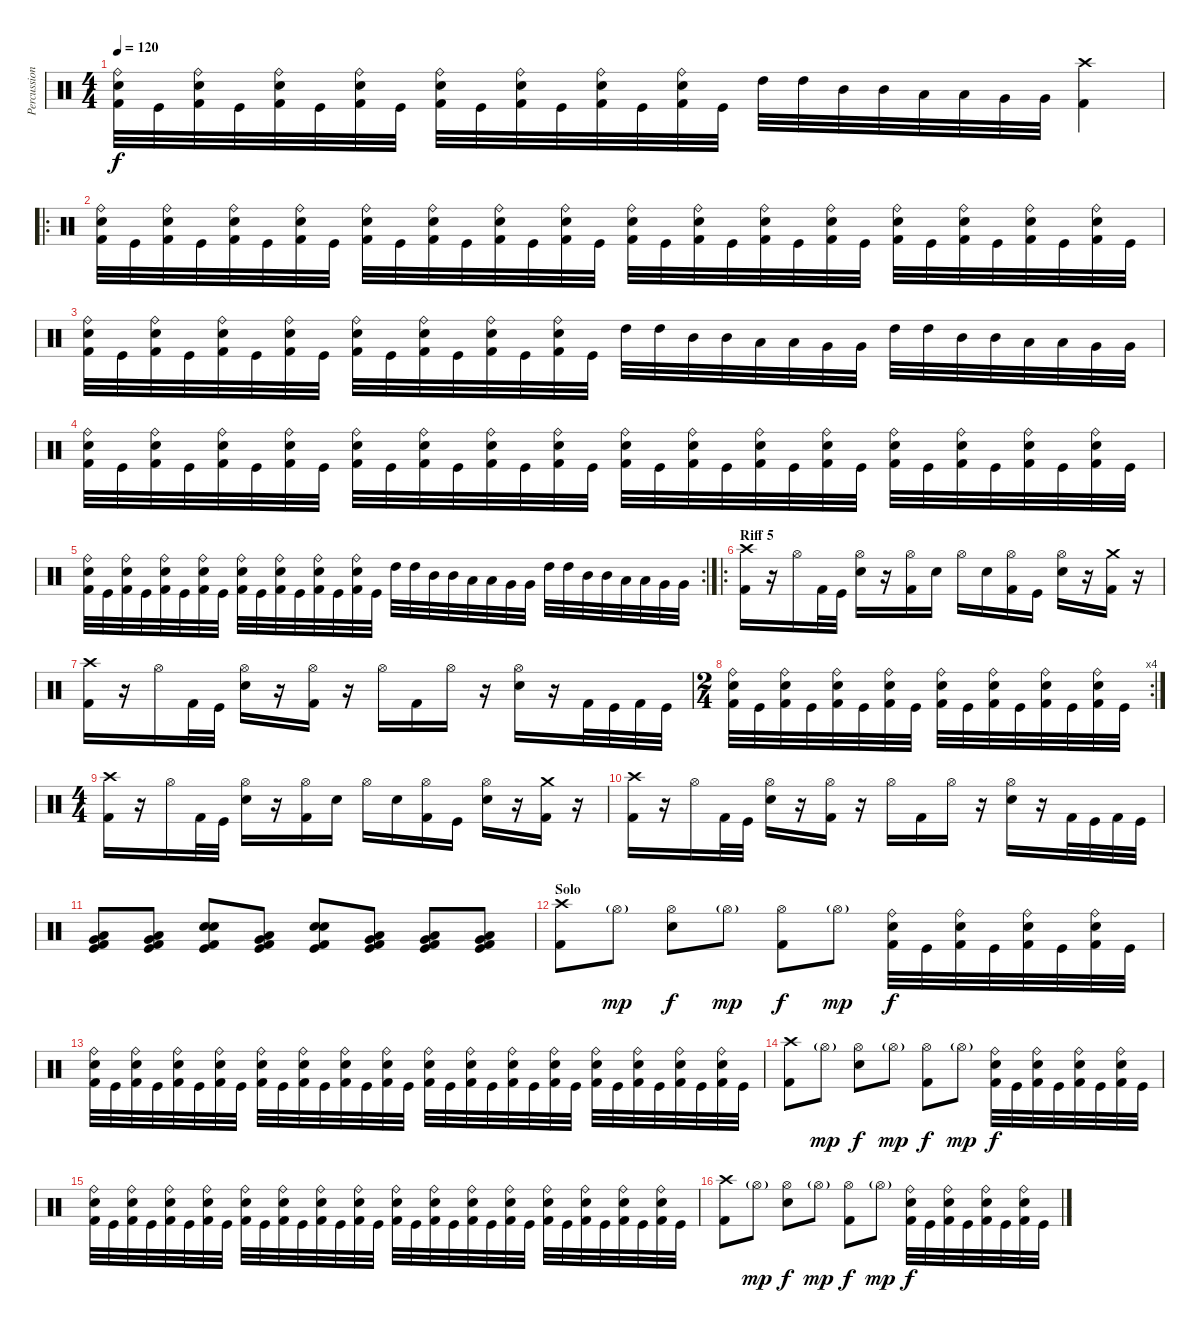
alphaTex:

\track ("Percussion" "Percussion") {instrument percussion}
\staff {score}
\articulation defaults
\ts (4 4)
\tempo 120
\clef neutral
\ks c
("Kick (hit) 2" "Electric Snare (hit)" "Ride (bell)").32{dy f} "Kick (hit)".32 ("Kick (hit) 2" "Electric Snare (hit)" "Ride (bell)").32 "Kick (hit)".32 ("Kick (hit) 2" "Electric Snare (hit)" "Ride (bell)").32 "Kick (hit)".32 ("Kick (hit) 2" "Electric Snare (hit)" "Ride (bell)").32 "Kick (hit)".32 ("Kick (hit) 2" "Electric Snare (hit)" "Ride (bell)").32 "Kick (hit)".32 ("Kick (hit) 2" "Electric Snare (hit)" "Ride (bell)").32 "Kick (hit)".32 ("Kick (hit) 2" "Electric Snare (hit)" "Ride (bell)").32 "Kick (hit)".32 ("Kick (hit) 2" "Electric Snare (hit)" "Ride (bell)").32 "Kick (hit)".32 "High Tom (hit)".32 "High Tom (hit)".32 "Mid Tom (hit)".32 "Mid Tom (hit)".32 "Low Tom (hit)".32 "Low Tom (hit)".32 "Very Low Tom (hit)".32 "Very Low Tom (hit)".32 ("Kick (hit) 2" "Crash high (hit)").4 |
\ro
("Kick (hit) 2" "Electric Snare (hit)" "Ride (bell)").32 "Kick (hit)".32 ("Kick (hit) 2" "Electric Snare (hit)" "Ride (bell)").32 "Kick (hit)".32 ("Kick (hit) 2" "Electric Snare (hit)" "Ride (bell)").32 "Kick (hit)".32 ("Kick (hit) 2" "Electric Snare (hit)" "Ride (bell)").32 "Kick (hit)".32 ("Kick (hit) 2" "Electric Snare (hit)" "Ride (bell)").32 "Kick (hit)".32 ("Kick (hit) 2" "Electric Snare (hit)" "Ride (bell)").32 "Kick (hit)".32 ("Kick (hit) 2" "Electric Snare (hit)" "Ride (bell)").32 "Kick (hit)".32 ("Kick (hit) 2" "Electric Snare (hit)" "Ride (bell)").32 "Kick (hit)".32 ("Kick (hit) 2" "Electric Snare (hit)" "Ride (bell)").32 "Kick (hit)".32 ("Kick (hit) 2" "Electric Snare (hit)" "Ride (bell)").32 "Kick (hit)".32 ("Kick (hit) 2" "Electric Snare (hit)" "Ride (bell)").32 "Kick (hit)".32 ("Kick (hit) 2" "Electric Snare (hit)" "Ride (bell)").32 "Kick (hit)".32 ("Kick (hit) 2" "Electric Snare (hit)" "Ride (bell)").32 "Kick (hit)".32 ("Kick (hit) 2" "Electric Snare (hit)" "Ride (bell)").32 "Kick (hit)".32 ("Kick (hit) 2" "Electric Snare (hit)" "Ride (bell)").32 "Kick (hit)".32 ("Kick (hit) 2" "Electric Snare (hit)" "Ride (bell)").32 "Kick (hit)".32 |
("Kick (hit) 2" "Electric Snare (hit)" "Ride (bell)").32 "Kick (hit)".32 ("Kick (hit) 2" "Electric Snare (hit)" "Ride (bell)").32 "Kick (hit)".32 ("Kick (hit) 2" "Electric Snare (hit)" "Ride (bell)").32 "Kick (hit)".32 ("Kick (hit) 2" "Electric Snare (hit)" "Ride (bell)").32 "Kick (hit)".32 ("Kick (hit) 2" "Electric Snare (hit)" "Ride (bell)").32 "Kick (hit)".32 ("Kick (hit) 2" "Electric Snare (hit)" "Ride (bell)").32 "Kick (hit)".32 ("Kick (hit) 2" "Electric Snare (hit)" "Ride (bell)").32 "Kick (hit)".32 ("Kick (hit) 2" "Electric Snare (hit)" "Ride (bell)").32 "Kick (hit)".32 "High Tom (hit)".32 "High Tom (hit)".32 "Mid Tom (hit)".32 "Mid Tom (hit)".32 "Low Tom (hit)".32 "Low Tom (hit)".32 "Very Low Tom (hit)".32 "Very Low Tom (hit)".32 "High Tom (hit)".32 "High Tom (hit)".32 "Mid Tom (hit)".32 "Mid Tom (hit)".32 "Low Tom (hit)".32 "Low Tom (hit)".32 "Very Low Tom (hit)".32 "Very Low Tom (hit)".32 |
("Kick (hit) 2" "Electric Snare (hit)" "Ride (bell)").32 "Kick (hit)".32 ("Kick (hit) 2" "Electric Snare (hit)" "Ride (bell)").32 "Kick (hit)".32 ("Kick (hit) 2" "Electric Snare (hit)" "Ride (bell)").32 "Kick (hit)".32 ("Kick (hit) 2" "Electric Snare (hit)" "Ride (bell)").32 "Kick (hit)".32 ("Kick (hit) 2" "Electric Snare (hit)" "Ride (bell)").32 "Kick (hit)".32 ("Kick (hit) 2" "Electric Snare (hit)" "Ride (bell)").32 "Kick (hit)".32 ("Kick (hit) 2" "Electric Snare (hit)" "Ride (bell)").32 "Kick (hit)".32 ("Kick (hit) 2" "Electric Snare (hit)" "Ride (bell)").32 "Kick (hit)".32 ("Kick (hit) 2" "Electric Snare (hit)" "Ride (bell)").32 "Kick (hit)".32 ("Kick (hit) 2" "Electric Snare (hit)" "Ride (bell)").32 "Kick (hit)".32 ("Kick (hit) 2" "Electric Snare (hit)" "Ride (bell)").32 "Kick (hit)".32 ("Kick (hit) 2" "Electric Snare (hit)" "Ride (bell)").32 "Kick (hit)".32 ("Kick (hit) 2" "Electric Snare (hit)" "Ride (bell)").32 "Kick (hit)".32 ("Kick (hit) 2" "Electric Snare (hit)" "Ride (bell)").32 "Kick (hit)".32 ("Kick (hit) 2" "Electric Snare (hit)" "Ride (bell)").32 "Kick (hit)".32 ("Kick (hit) 2" "Electric Snare (hit)" "Ride (bell)").32 "Kick (hit)".32 |
\rc 2
("Kick (hit) 2" "Electric Snare (hit)" "Ride (bell)").32 "Kick (hit)".32 ("Kick (hit) 2" "Electric Snare (hit)" "Ride (bell)").32 "Kick (hit)".32 ("Kick (hit) 2" "Electric Snare (hit)" "Ride (bell)").32 "Kick (hit)".32 ("Kick (hit) 2" "Electric Snare (hit)" "Ride (bell)").32 "Kick (hit)".32 ("Kick (hit) 2" "Electric Snare (hit)" "Ride (bell)").32 "Kick (hit)".32 ("Kick (hit) 2" "Electric Snare (hit)" "Ride (bell)").32 "Kick (hit)".32 ("Kick (hit) 2" "Electric Snare (hit)" "Ride (bell)").32 "Kick (hit)".32 ("Kick (hit) 2" "Electric Snare (hit)" "Ride (bell)").32 "Kick (hit)".32 "High Tom (hit)".32 "High Tom (hit)".32 "Mid Tom (hit)".32 "Mid Tom (hit)".32 "Low Tom (hit)".32 "Low Tom (hit)".32 "Very Low Tom (hit)".32 "Very Low Tom (hit)".32 "High Tom (hit)".32 "High Tom (hit)".32 "Mid Tom (hit)".32 "Mid Tom (hit)".32 "Low Tom (hit)".32 "Low Tom (hit)".32 "Very Low Tom (hit)".32 "Very Low Tom (hit)".32 |
\ro
\section ("" "Riff 5")
("Kick (hit) 2" "Crash high (hit)").16 r.16 "Hi-Hat (open)".16 "Kick (hit) 2".32 "Kick (hit)".32 ("Electric Snare (hit)" "Hi-Hat (open)").16 r.16 ("Kick (hit) 2" "Hi-Hat (open)").16 "Electric Snare (hit)".16 "Hi-Hat (open)".16 "Electric Snare (hit)".16 ("Kick (hit) 2" "Hi-Hat (open)").16 "Kick (hit)".16 ("Electric Snare (hit)" "Hi-Hat (open)").16 r.16 ("Kick (hit) 2" "Crash medium (hit)").16 r.16 |
("Kick (hit) 2" "Crash high (hit)").16 r.16 "Hi-Hat (open)".16 "Kick (hit) 2".32 "Kick (hit)".32 ("Electric Snare (hit)" "Hi-Hat (open)").16 r.16 ("Kick (hit) 2" "Hi-Hat (open)").16 r.16 "Hi-Hat (open)".16 "Kick (hit) 2".16 "Hi-Hat (open)".16 r.16 ("Electric Snare (hit)" "Hi-Hat (open)").16 r.16 "Kick (hit) 2".32 "Kick (hit)".32 "Kick (hit) 2".32 "Kick (hit)".32 |
\rc 4
\ts (2 4)
("Kick (hit) 2" "Electric Snare (hit)" "Ride (bell)").32 "Kick (hit)".32 ("Kick (hit) 2" "Electric Snare (hit)" "Ride (bell)").32 "Kick (hit)".32 ("Kick (hit) 2" "Electric Snare (hit)" "Ride (bell)").32 "Kick (hit)".32 ("Kick (hit) 2" "Electric Snare (hit)" "Ride (bell)").32 "Kick (hit)".32 ("Kick (hit) 2" "Electric Snare (hit)" "Ride (bell)").32 "Kick (hit)".32 ("Kick (hit) 2" "Electric Snare (hit)" "Ride (bell)").32 "Kick (hit)".32 ("Kick (hit) 2" "Electric Snare (hit)" "Ride (bell)").32 "Kick (hit)".32 ("Kick (hit) 2" "Electric Snare (hit)" "Ride (bell)").32 "Kick (hit)".32 |
\ts (4 4)
("Kick (hit) 2" "Crash high (hit)").16 r.16 "Hi-Hat (open)".16 "Kick (hit) 2".32 "Kick (hit)".32 ("Electric Snare (hit)" "Hi-Hat (open)").16 r.16 ("Kick (hit) 2" "Hi-Hat (open)").16 "Electric Snare (hit)".16 "Hi-Hat (open)".16 "Electric Snare (hit)".16 ("Kick (hit) 2" "Hi-Hat (open)").16 "Kick (hit)".16 ("Electric Snare (hit)" "Hi-Hat (open)").16 r.16 ("Kick (hit) 2" "Crash medium (hit)").16 r.16 |
("Kick (hit) 2" "Crash high (hit)").16 r.16 "Hi-Hat (open)".16 "Kick (hit) 2".32 "Kick (hit)".32 ("Electric Snare (hit)" "Hi-Hat (open)").16 r.16 ("Kick (hit) 2" "Hi-Hat (open)").16 r.16 "Hi-Hat (open)".16 "Kick (hit) 2".16 "Hi-Hat (open)".16 r.16 ("Electric Snare (hit)" "Hi-Hat (open)").16 r.16 "Kick (hit) 2".32 "Kick (hit)".32 "Kick (hit) 2".32 "Kick (hit)".32 |
("Kick (hit) 2" "Low Tom (hit)" "Very Low Tom (hit)" "Kick (hit)").8 ("Kick (hit) 2" "Low Tom (hit)" "Very Low Tom (hit)" "Kick (hit)").8 ("Electric Snare (hit)" "Electric Snare (hit)" "Kick (hit) 2" "Kick (hit)").8 ("Kick (hit) 2" "Low Tom (hit)" "Very Low Tom (hit)" "Kick (hit)").8 ("Electric Snare (hit)" "Electric Snare (hit)" "Kick (hit) 2" "Kick (hit)").8 ("Kick (hit) 2" "Low Tom (hit)" "Very Low Tom (hit)" "Kick (hit)").8 ("Kick (hit) 2" "Low Tom (hit)" "Very Low Tom (hit)" "Kick (hit)").8 ("Kick (hit) 2" "Low Tom (hit)" "Very Low Tom (hit)" "Kick (hit)").8 |
\section ("" "Solo")
("Kick (hit) 2" "Crash high (hit)").8 "Hi-Hat (open)"{g}.8{dy mp} ("Electric Snare (hit)" "Hi-Hat (open)").8{dy f} "Hi-Hat (open)"{g}.8{dy mp} ("Kick (hit) 2" "Hi-Hat (open)").8{dy f} "Hi-Hat (open)"{g}.8{dy mp} ("Kick (hit) 2" "Electric Snare (hit)" "Ride (bell)").32{dy f} "Kick (hit)".32 ("Kick (hit) 2" "Electric Snare (hit)" "Ride (bell)").32 "Kick (hit)".32 ("Kick (hit) 2" "Electric Snare (hit)" "Ride (bell)").32 "Kick (hit)".32 ("Kick (hit) 2" "Electric Snare (hit)" "Ride (bell)").32 "Kick (hit)".32 |
("Kick (hit) 2" "Electric Snare (hit)" "Ride (bell)").32 "Kick (hit)".32 ("Kick (hit) 2" "Electric Snare (hit)" "Ride (bell)").32 "Kick (hit)".32 ("Kick (hit) 2" "Electric Snare (hit)" "Ride (bell)").32 "Kick (hit)".32 ("Kick (hit) 2" "Electric Snare (hit)" "Ride (bell)").32 "Kick (hit)".32 ("Kick (hit) 2" "Electric Snare (hit)" "Ride (bell)").32 "Kick (hit)".32 ("Kick (hit) 2" "Electric Snare (hit)" "Ride (bell)").32 "Kick (hit)".32 ("Kick (hit) 2" "Electric Snare (hit)" "Ride (bell)").32 "Kick (hit)".32 ("Kick (hit) 2" "Electric Snare (hit)" "Ride (bell)").32 "Kick (hit)".32 ("Kick (hit) 2" "Electric Snare (hit)" "Ride (bell)").32 "Kick (hit)".32 ("Kick (hit) 2" "Electric Snare (hit)" "Ride (bell)").32 "Kick (hit)".32 ("Kick (hit) 2" "Electric Snare (hit)" "Ride (bell)").32 "Kick (hit)".32 ("Kick (hit) 2" "Electric Snare (hit)" "Ride (bell)").32 "Kick (hit)".32 ("Kick (hit) 2" "Electric Snare (hit)" "Ride (bell)").32 "Kick (hit)".32 ("Kick (hit) 2" "Electric Snare (hit)" "Ride (bell)").32 "Kick (hit)".32 ("Kick (hit) 2" "Electric Snare (hit)" "Ride (bell)").32 "Kick (hit)".32 ("Kick (hit) 2" "Electric Snare (hit)" "Ride (bell)").32 "Kick (hit)".32 |
("Kick (hit) 2" "Crash high (hit)").8 "Hi-Hat (open)"{g}.8{dy mp} ("Electric Snare (hit)" "Hi-Hat (open)").8{dy f} "Hi-Hat (open)"{g}.8{dy mp} ("Kick (hit) 2" "Hi-Hat (open)").8{dy f} "Hi-Hat (open)"{g}.8{dy mp} ("Kick (hit) 2" "Electric Snare (hit)" "Ride (bell)").32{dy f} "Kick (hit)".32 ("Kick (hit) 2" "Electric Snare (hit)" "Ride (bell)").32 "Kick (hit)".32 ("Kick (hit) 2" "Electric Snare (hit)" "Ride (bell)").32 "Kick (hit)".32 ("Kick (hit) 2" "Electric Snare (hit)" "Ride (bell)").32 "Kick (hit)".32 |
("Kick (hit) 2" "Electric Snare (hit)" "Ride (bell)").32 "Kick (hit)".32 ("Kick (hit) 2" "Electric Snare (hit)" "Ride (bell)").32 "Kick (hit)".32 ("Kick (hit) 2" "Electric Snare (hit)" "Ride (bell)").32 "Kick (hit)".32 ("Kick (hit) 2" "Electric Snare (hit)" "Ride (bell)").32 "Kick (hit)".32 ("Kick (hit) 2" "Electric Snare (hit)" "Ride (bell)").32 "Kick (hit)".32 ("Kick (hit) 2" "Electric Snare (hit)" "Ride (bell)").32 "Kick (hit)".32 ("Kick (hit) 2" "Electric Snare (hit)" "Ride (bell)").32 "Kick (hit)".32 ("Kick (hit) 2" "Electric Snare (hit)" "Ride (bell)").32 "Kick (hit)".32 ("Kick (hit) 2" "Electric Snare (hit)" "Ride (bell)").32 "Kick (hit)".32 ("Kick (hit) 2" "Electric Snare (hit)" "Ride (bell)").32 "Kick (hit)".32 ("Kick (hit) 2" "Electric Snare (hit)" "Ride (bell)").32 "Kick (hit)".32 ("Kick (hit) 2" "Electric Snare (hit)" "Ride (bell)").32 "Kick (hit)".32 ("Kick (hit) 2" "Electric Snare (hit)" "Ride (bell)").32 "Kick (hit)".32 ("Kick (hit) 2" "Electric Snare (hit)" "Ride (bell)").32 "Kick (hit)".32 ("Kick (hit) 2" "Electric Snare (hit)" "Ride (bell)").32 "Kick (hit)".32 ("Kick (hit) 2" "Electric Snare (hit)" "Ride (bell)").32 "Kick (hit)".32 |
("Kick (hit) 2" "Crash high (hit)").8 "Hi-Hat (open)"{g}.8{dy mp} ("Electric Snare (hit)" "Hi-Hat (open)").8{dy f} "Hi-Hat (open)"{g}.8{dy mp} ("Kick (hit) 2" "Hi-Hat (open)").8{dy f} "Hi-Hat (open)"{g}.8{dy mp} ("Kick (hit) 2" "Electric Snare (hit)" "Ride (bell)").32{dy f} "Kick (hit)".32 ("Kick (hit) 2" "Electric Snare (hit)" "Ride (bell)").32 "Kick (hit)".32 ("Kick (hit) 2" "Electric Snare (hit)" "Ride (bell)").32 "Kick (hit)".32 ("Kick (hit) 2" "Electric Snare (hit)" "Ride (bell)").32 "Kick (hit)".32
